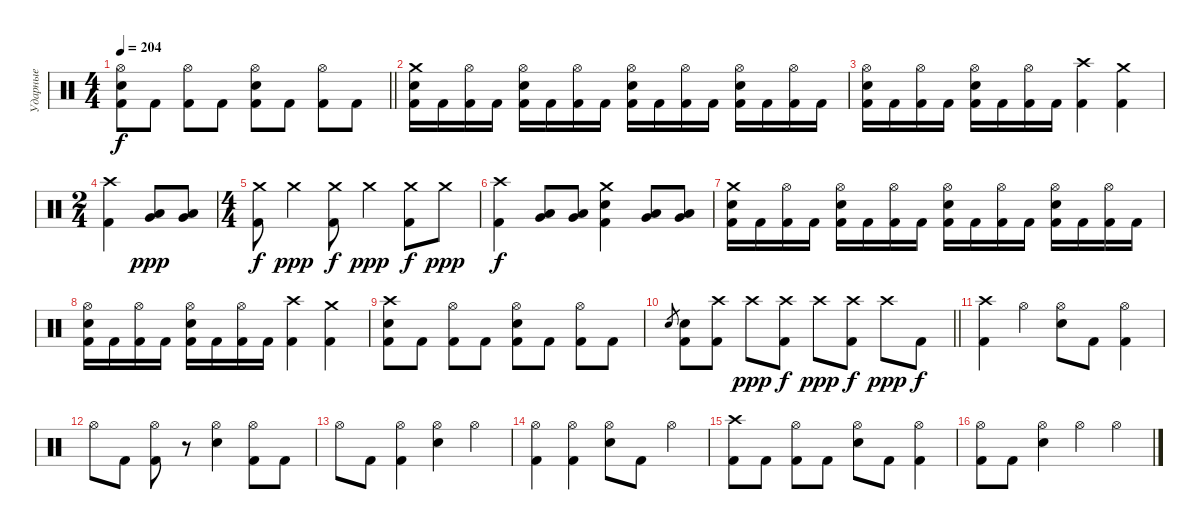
\track ("Ударные" "Ударные") {instrument percussion}
\staff {score}
\articulation defaults
\ts (4 4)
\tempo 204
\clef neutral
\barLineRight lightlight
\ks c
("Hi-Hat (open)" "Snare (hit) 2" "Kick (hit) 2").8{dy f} "Kick (hit) 2".8 ("Hi-Hat (open)" "Kick (hit) 2").8 "Kick (hit) 2".8 ("Hi-Hat (open)" "Snare (hit) 2" "Kick (hit) 2").8 "Kick (hit) 2".8 ("Hi-Hat (open)" "Kick (hit) 2").8 "Kick (hit) 2".8 |
("Crash medium (hit)" "Snare (hit) 2" "Kick (hit) 2").16 "Kick (hit) 2".16 ("Hi-Hat (open)" "Kick (hit) 2").16 "Kick (hit) 2".16 ("Hi-Hat (open)" "Snare (hit) 2" "Kick (hit) 2").16 "Kick (hit) 2".16 ("Hi-Hat (open)" "Kick (hit) 2").16 "Kick (hit) 2".16 ("Hi-Hat (open)" "Snare (hit) 2" "Kick (hit) 2").16 "Kick (hit) 2".16 ("Hi-Hat (open)" "Kick (hit) 2").16 "Kick (hit) 2".16 ("Hi-Hat (open)" "Snare (hit) 2" "Kick (hit) 2").16 "Kick (hit) 2".16 ("Hi-Hat (open)" "Kick (hit) 2").16 "Kick (hit) 2".16 |
("Hi-Hat (open)" "Snare (hit) 2" "Kick (hit) 2").16 "Kick (hit) 2".16 ("Hi-Hat (open)" "Kick (hit) 2").16 "Kick (hit) 2".16 ("Hi-Hat (open)" "Snare (hit) 2" "Kick (hit) 2").16 "Kick (hit) 2".16 ("Hi-Hat (open)" "Kick (hit) 2").16 "Kick (hit) 2".16 ("Crash high (hit)" "Kick (hit) 2").4 ("Crash medium (hit)" "Kick (hit) 2").4 |
\ts (2 4)
("Crash high (hit)" "Kick (hit) 2").4 ("Low Tom (hit)" "Very Low Tom (hit)").8{dy ppp} ("Low Tom (hit)" "Very Low Tom (hit)").8 |
\ts (4 4)
("Crash medium (hit)" "Kick (hit) 2").8{dy f} "Crash medium (hit)".4{dy ppp} ("Crash medium (hit)" "Kick (hit) 2").8{dy f} "Crash medium (hit)".4{dy ppp} ("Crash medium (hit)" "Kick (hit) 2").8{dy f} "Crash medium (hit)".8{dy ppp} |
("Crash high (hit)" "Kick (hit) 2").4{dy f} ("Low Tom (hit)" "Very Low Tom (hit)").8 ("Low Tom (hit)" "Very Low Tom (hit)").8 ("Crash medium (hit)" "Snare (hit) 2" "Kick (hit) 2").4 ("Low Tom (hit)" "Very Low Tom (hit)").8 ("Low Tom (hit)" "Very Low Tom (hit)").8 |
("Crash medium (hit)" "Snare (hit) 2" "Kick (hit) 2").16 "Kick (hit) 2".16 ("Hi-Hat (open)" "Kick (hit) 2").16 "Kick (hit) 2".16 ("Hi-Hat (open)" "Snare (hit) 2" "Kick (hit) 2").16 "Kick (hit) 2".16 ("Hi-Hat (open)" "Kick (hit) 2").16 "Kick (hit) 2".16 ("Hi-Hat (open)" "Snare (hit) 2" "Kick (hit) 2").16 "Kick (hit) 2".16 ("Hi-Hat (open)" "Kick (hit) 2").16 "Kick (hit) 2".16 ("Hi-Hat (open)" "Snare (hit) 2" "Kick (hit) 2").16 "Kick (hit) 2".16 ("Hi-Hat (open)" "Kick (hit) 2").16 "Kick (hit) 2".16 |
("Hi-Hat (open)" "Snare (hit) 2" "Kick (hit) 2").16 "Kick (hit) 2".16 ("Hi-Hat (open)" "Kick (hit) 2").16 "Kick (hit) 2".16 ("Hi-Hat (open)" "Snare (hit) 2" "Kick (hit) 2").16 "Kick (hit) 2".16 ("Hi-Hat (open)" "Kick (hit) 2").16 "Kick (hit) 2".16 ("Crash high (hit)" "Kick (hit) 2").4 ("Crash medium (hit)" "Kick (hit) 2").4 |
("Crash high (hit)" "Snare (hit) 2" "Kick (hit) 2").8 "Kick (hit) 2".8 ("Hi-Hat (open)" "Kick (hit) 2").8 "Kick (hit) 2".8 ("Hi-Hat (open)" "Snare (hit) 2" "Kick (hit) 2").8 "Kick (hit) 2".8 ("Hi-Hat (open)" "Kick (hit) 2").8 "Kick (hit) 2".8 |
\barLineRight lightlight "Snare (hit) 2".8{gr}
("Snare (hit) 2" "Kick (hit) 2").8 ("Crash high (hit)" "Kick (hit) 2").8 "Crash high (hit)".8{dy ppp} ("Crash high (hit)" "Kick (hit) 2").8{dy f} "Crash high (hit)".8{dy ppp} ("Crash high (hit)" "Kick (hit) 2").8{dy f} "Crash high (hit)".8{dy ppp} "Kick (hit) 2".8{dy f} |
("Crash high (hit)" "Kick (hit) 2").4 "Hi-Hat (open)".4 ("Hi-Hat (open)" "Snare (hit) 2").8 "Kick (hit) 2".8 ("Hi-Hat (open)" "Kick (hit) 2").4 |
"Hi-Hat (open)".8 "Kick (hit) 2".8 ("Hi-Hat (open)" "Kick (hit) 2").8 r.8 ("Hi-Hat (open)" "Snare (hit) 2").4 ("Hi-Hat (open)" "Kick (hit) 2").8 "Kick (hit) 2".8 |
"Hi-Hat (open)".8 "Kick (hit) 2".8 ("Hi-Hat (open)" "Kick (hit) 2").4 ("Hi-Hat (open)" "Snare (hit) 2").4 "Hi-Hat (open)".4 |
("Hi-Hat (open)" "Kick (hit) 2").4 ("Hi-Hat (open)" "Kick (hit) 2").4 ("Hi-Hat (open)" "Snare (hit) 2").8 "Kick (hit) 2".8 "Hi-Hat (open)".4 |
("Crash high (hit)" "Kick (hit) 2").8 "Kick (hit) 2".8 ("Hi-Hat (open)" "Kick (hit) 2").8 "Kick (hit) 2".8 ("Hi-Hat (open)" "Snare (hit) 2").8 "Kick (hit) 2".8 ("Hi-Hat (open)" "Kick (hit) 2").4 |
("Hi-Hat (open)" "Kick (hit) 2").8 "Kick (hit) 2".8 ("Hi-Hat (open)" "Snare (hit) 2").4 "Hi-Hat (open)".4 "Hi-Hat (open)".4
